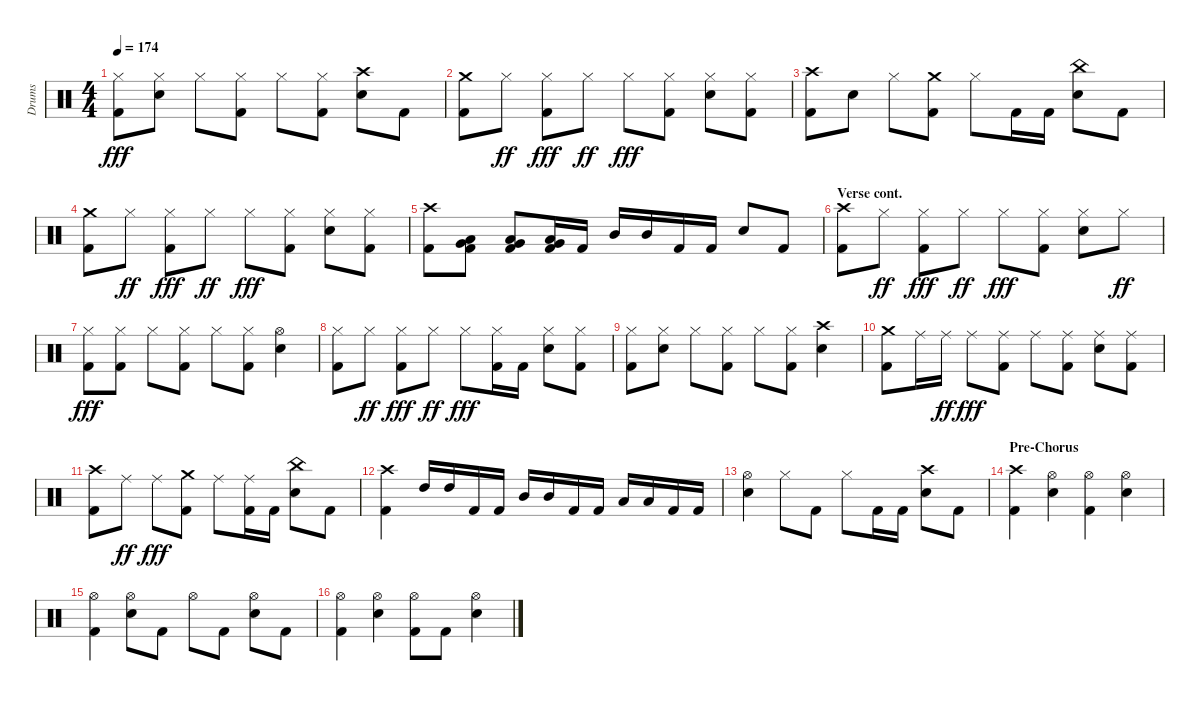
\track ("Drums" "Drums") {instrument percussion}
\staff {score}
\articulation defaults
\ts (4 4)
\tempo 174
\clef neutral
\ks aminor
("Kick (hit) 2" "Hi-Hat (closed)").8{dy fff} ("Snare (hit) 2" "Hi-Hat (closed)").8 "Hi-Hat (closed)".8 ("Kick (hit) 2" "Hi-Hat (closed)").8 "Hi-Hat (closed)".8 ("Kick (hit) 2" "Hi-Hat (closed)").8 ("Snare (hit) 2" "Crash high (hit)").8 "Kick (hit) 2".8 |
("Kick (hit) 2" "Crash medium (hit)").8 "Hi-Hat (closed)".8{dy ff} ("Kick (hit) 2" "Hi-Hat (closed)").8{dy fff} "Hi-Hat (closed)".8{dy ff} "Hi-Hat (closed)".8{dy fff} ("Kick (hit) 2" "Hi-Hat (closed)").8 ("Snare (hit) 2" "Hi-Hat (closed)").8 ("Kick (hit) 2" "Hi-Hat (closed)").8 |
("Kick (hit) 2" "Crash high (hit)").8 "Snare (hit) 2".8 "Hi-Hat (closed)".8 ("Kick (hit) 2" "Crash medium (hit)").8 "Hi-Hat (closed)".8 "Kick (hit) 2".16 "Kick (hit) 2".16 ("Snare (hit) 2" "China (hit)").8 "Kick (hit) 2".8 |
("Kick (hit) 2" "Crash medium (hit)").8 "Hi-Hat (closed)".8{dy ff} ("Kick (hit) 2" "Hi-Hat (closed)").8{dy fff} "Hi-Hat (closed)".8{dy ff} "Hi-Hat (closed)".8{dy fff} ("Kick (hit) 2" "Hi-Hat (closed)").8 ("Snare (hit) 2" "Hi-Hat (closed)").8 ("Kick (hit) 2" "Hi-Hat (closed)").8 |
("Kick (hit) 2" "Crash high (hit)").8 ("Kick (hit) 2" "Low Floor Tom (hit)" "Very Low Tom (hit)").8 ("Kick (hit) 2" "Low Floor Tom (hit)" "Very Low Tom (hit)").8 ("Kick (hit) 2" "Low Floor Tom (hit)" "Very Low Tom (hit)").16 "Kick (hit) 2".16 "Mid Tom (hit)".16 "Mid Tom (hit)".16 "Kick (hit) 2".16 "Kick (hit) 2".16 "Snare (hit) 2".8 "Kick (hit) 2".8 |
\section ("" "Verse cont.")
("Kick (hit) 2" "Crash high (hit)").8 "Hi-Hat (closed)".8{dy ff} ("Kick (hit) 2" "Hi-Hat (closed)").8{dy fff} "Hi-Hat (closed)".8{dy ff} "Hi-Hat (closed)".8{dy fff} ("Kick (hit) 2" "Hi-Hat (closed)").8 ("Snare (hit) 2" "Hi-Hat (closed)").8 "Hi-Hat (closed)".8{dy ff} |
("Kick (hit) 2" "Hi-Hat (closed)").8{dy fff} ("Kick (hit) 2" "Hi-Hat (closed)").8 "Hi-Hat (closed)".8 ("Kick (hit) 2" "Hi-Hat (closed)").8 "Hi-Hat (closed)".8 ("Kick (hit) 2" "Hi-Hat (closed)").8 ("Snare (hit) 2" "Hi-Hat (open)").4 |
("Kick (hit) 2" "Hi-Hat (closed)").8 "Hi-Hat (closed)".8{dy ff} ("Kick (hit) 2" "Hi-Hat (closed)").8{dy fff} "Hi-Hat (closed)".8{dy ff} "Hi-Hat (closed)".8{dy fff} ("Kick (hit) 2" "Hi-Hat (closed)").16 "Kick (hit) 2".16 ("Snare (hit) 2" "Hi-Hat (closed)").8 ("Kick (hit) 2" "Hi-Hat (closed)").8 |
("Kick (hit) 2" "Hi-Hat (closed)").8 ("Snare (hit) 2" "Hi-Hat (closed)").8 "Hi-Hat (closed)".8 ("Kick (hit) 2" "Hi-Hat (closed)").8 "Hi-Hat (closed)".8 ("Kick (hit) 2" "Hi-Hat (closed)").8 ("Snare (hit) 2" "Crash high (hit)").4 |
("Kick (hit) 2" "Crash medium (hit)").8 "Ride (middle)".16 "Ride (middle)".16{dy ff} "Ride (middle)".8{dy fff} ("Kick (hit) 2" "Ride (middle)").8 "Ride (middle)".8 ("Kick (hit) 2" "Ride (middle)").8 ("Snare (hit) 2" "Ride (middle)").8 ("Kick (hit) 2" "Ride (middle)").8 |
("Kick (hit) 2" "Crash high (hit)").8 "Ride (middle)".8{dy ff} "Ride (middle)".8{dy fff} ("Kick (hit) 2" "Crash medium (hit)").8 "Ride (middle)".8 ("Kick (hit) 2" "Ride (middle)").16 "Kick (hit) 2".16 ("Snare (hit) 2" "China (hit)").8 "Kick (hit) 2".8 |
("Kick (hit) 2" "Crash high (hit)").4 "High Tom (hit)".16 "High Tom (hit)".16 "Kick (hit) 2".16 "Kick (hit) 2".16 "Mid Tom (hit)".16 "Mid Tom (hit)".16 "Kick (hit) 2".16 "Kick (hit) 2".16 "Low Tom (hit)".16 "Low Tom (hit)".16 "Kick (hit) 2".16 "Kick (hit) 2".16 |
("Snare (hit) 2" "Hi-Hat (open)").4 "Hi-Hat (closed)".8 "Kick (hit) 2".8 "Hi-Hat (closed)".8 "Kick (hit) 2".16 "Kick (hit) 2".16 ("Snare (hit) 2" "Crash high (hit)").8 "Kick (hit) 2".8 |
\section ("" "Pre-Chorus")
("Kick (hit) 2" "Crash high (hit)").4 ("Snare (hit) 2" "Hi-Hat (open)").4 ("Kick (hit) 2" "Hi-Hat (open)").4 ("Snare (hit) 2" "Hi-Hat (open)").4 |
("Kick (hit) 2" "Hi-Hat (open)").4 ("Snare (hit) 2" "Hi-Hat (open)").8 "Kick (hit) 2".8 "Hi-Hat (open)".8 "Kick (hit) 2".8 ("Snare (hit) 2" "Hi-Hat (open)").8 "Kick (hit) 2".8 |
("Kick (hit) 2" "Hi-Hat (open)").4 ("Snare (hit) 2" "Hi-Hat (open)").4 ("Kick (hit) 2" "Hi-Hat (open)").8 "Kick (hit) 2".8 ("Snare (hit) 2" "Hi-Hat (open)").4
